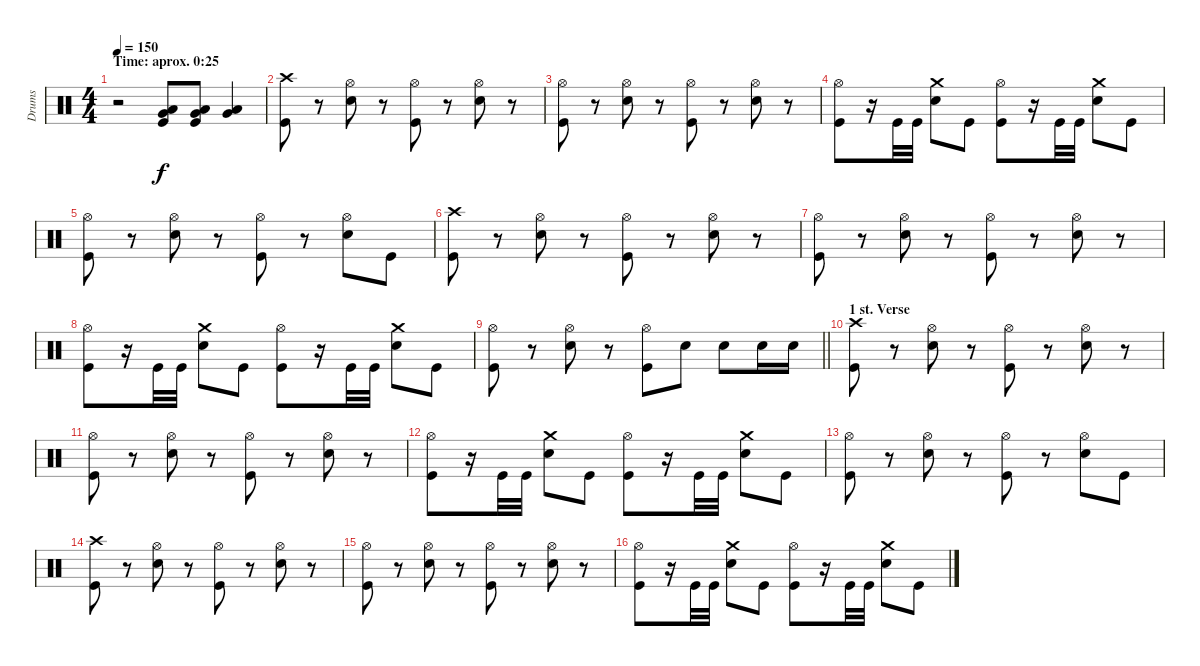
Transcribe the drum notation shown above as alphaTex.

\track ("Drums" "Drums") {instrument percussion}
\staff {score}
\articulation defaults
\ts (4 4)
\section ("" "Time: aprox. 0:25")
\tempo 150
\clef neutral
\ks c
r.2{dy f} ("Very Low Tom (hit)" "Low Tom (hit)" "Kick (hit)").8 ("Very Low Tom (hit)" "Low Tom (hit)" "Kick (hit)").8 ("Very Low Tom (hit)" "Low Tom (hit)").4 |
("Crash high (hit)" "Kick (hit)").8 r.8 ("Hi-Hat (open)" "Electric Snare (hit)").8 r.8 ("Hi-Hat (open)" "Kick (hit)").8 r.8 ("Hi-Hat (open)" "Electric Snare (hit)").8 r.8 |
("Hi-Hat (open)" "Kick (hit)").8 r.8 ("Hi-Hat (open)" "Electric Snare (hit)").8 r.8 ("Hi-Hat (open)" "Kick (hit)").8 r.8 ("Hi-Hat (open)" "Electric Snare (hit)").8 r.8 |
("Hi-Hat (open)" "Kick (hit)").8 r.16 "Kick (hit)".32 "Kick (hit)".32 ("Crash medium (hit)" "Electric Snare (hit)").8 "Kick (hit)".8 ("Hi-Hat (open)" "Kick (hit)").8 r.16 "Kick (hit)".32 "Kick (hit)".32 ("Crash medium (hit)" "Electric Snare (hit)").8 "Kick (hit)".8 |
("Hi-Hat (open)" "Kick (hit)").8 r.8 ("Hi-Hat (open)" "Electric Snare (hit)").8 r.8 ("Hi-Hat (open)" "Kick (hit)").8 r.8 ("Hi-Hat (open)" "Electric Snare (hit)").8 "Kick (hit)".8 |
("Crash high (hit)" "Kick (hit)").8 r.8 ("Hi-Hat (open)" "Electric Snare (hit)").8 r.8 ("Hi-Hat (open)" "Kick (hit)").8 r.8 ("Hi-Hat (open)" "Electric Snare (hit)").8 r.8 |
("Hi-Hat (open)" "Kick (hit)").8 r.8 ("Hi-Hat (open)" "Electric Snare (hit)").8 r.8 ("Hi-Hat (open)" "Kick (hit)").8 r.8 ("Hi-Hat (open)" "Electric Snare (hit)").8 r.8 |
("Hi-Hat (open)" "Kick (hit)").8 r.16 "Kick (hit)".32 "Kick (hit)".32 ("Crash medium (hit)" "Electric Snare (hit)").8 "Kick (hit)".8 ("Hi-Hat (open)" "Kick (hit)").8 r.16 "Kick (hit)".32 "Kick (hit)".32 ("Crash medium (hit)" "Electric Snare (hit)").8 "Kick (hit)".8 |
\barLineRight lightlight
("Hi-Hat (open)" "Kick (hit)").8 r.8 ("Hi-Hat (open)" "Electric Snare (hit)").8 r.8 ("Hi-Hat (open)" "Kick (hit)").8 "Electric Snare (hit)".8 "Electric Snare (hit)".8 "Electric Snare (hit)".16 "Electric Snare (hit)".16 |
\section ("" "1 st. Verse")
("Crash high (hit)" "Kick (hit)").8 r.8 ("Hi-Hat (open)" "Electric Snare (hit)").8 r.8 ("Hi-Hat (open)" "Kick (hit)").8 r.8 ("Hi-Hat (open)" "Electric Snare (hit)").8 r.8 |
("Hi-Hat (open)" "Kick (hit)").8 r.8 ("Hi-Hat (open)" "Electric Snare (hit)").8 r.8 ("Hi-Hat (open)" "Kick (hit)").8 r.8 ("Hi-Hat (open)" "Electric Snare (hit)").8 r.8 |
("Hi-Hat (open)" "Kick (hit)").8 r.16 "Kick (hit)".32 "Kick (hit)".32 ("Crash medium (hit)" "Electric Snare (hit)").8 "Kick (hit)".8 ("Hi-Hat (open)" "Kick (hit)").8 r.16 "Kick (hit)".32 "Kick (hit)".32 ("Crash medium (hit)" "Electric Snare (hit)").8 "Kick (hit)".8 |
("Hi-Hat (open)" "Kick (hit)").8 r.8 ("Hi-Hat (open)" "Electric Snare (hit)").8 r.8 ("Hi-Hat (open)" "Kick (hit)").8 r.8 ("Hi-Hat (open)" "Electric Snare (hit)").8 "Kick (hit)".8 |
("Crash high (hit)" "Kick (hit)").8 r.8 ("Hi-Hat (open)" "Electric Snare (hit)").8 r.8 ("Hi-Hat (open)" "Kick (hit)").8 r.8 ("Hi-Hat (open)" "Electric Snare (hit)").8 r.8 |
("Hi-Hat (open)" "Kick (hit)").8 r.8 ("Hi-Hat (open)" "Electric Snare (hit)").8 r.8 ("Hi-Hat (open)" "Kick (hit)").8 r.8 ("Hi-Hat (open)" "Electric Snare (hit)").8 r.8 |
("Hi-Hat (open)" "Kick (hit)").8 r.16 "Kick (hit)".32 "Kick (hit)".32 ("Crash medium (hit)" "Electric Snare (hit)").8 "Kick (hit)".8 ("Hi-Hat (open)" "Kick (hit)").8 r.16 "Kick (hit)".32 "Kick (hit)".32 ("Crash medium (hit)" "Electric Snare (hit)").8 "Kick (hit)".8
